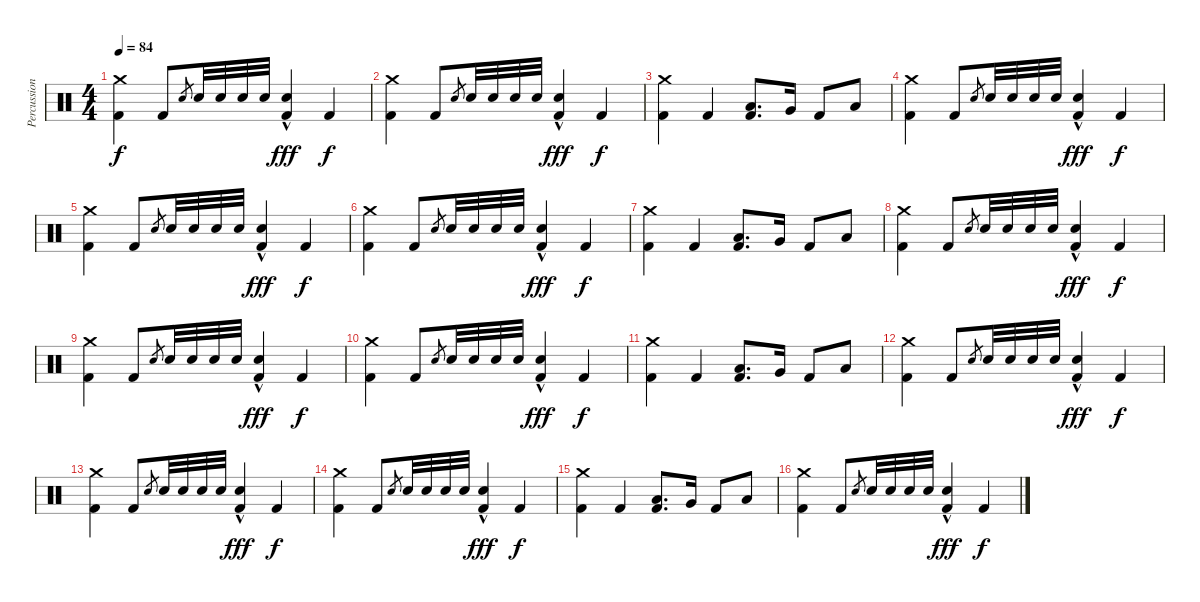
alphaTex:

\track ("Percussion" "Percussion") {instrument percussion}
\staff {score}
\articulation defaults
\ts (4 4)
\tempo 84
\clef neutral
\ks c
("Crash medium (hit)" "Kick (hit) 2").4{dy f} "Kick (hit) 2".8 "Electric Snare (hit)".8{gr} "Electric Snare (hit)".32 "Electric Snare (hit)".32 "Electric Snare (hit)".32 "Electric Snare (hit)".32 ("Electric Snare (hit)"{hac} "Kick (hit) 2").4{dy fff} "Kick (hit) 2".4{dy f} |
("Crash medium (hit)" "Kick (hit) 2").4 "Kick (hit) 2".8 "Electric Snare (hit)".8{gr} "Electric Snare (hit)".32 "Electric Snare (hit)".32 "Electric Snare (hit)".32 "Electric Snare (hit)".32 ("Electric Snare (hit)"{hac} "Kick (hit) 2").4{dy fff} "Kick (hit) 2".4{dy f} |
("Crash medium (hit)" "Kick (hit) 2").4 "Kick (hit) 2".4 ("Low Tom (hit)" "Kick (hit) 2").8{d} "Very Low Tom (hit)".16 "Kick (hit) 2".8 "Low Floor Tom (hit)".8 |
("Crash medium (hit)" "Kick (hit) 2").4 "Kick (hit) 2".8 "Electric Snare (hit)".8{gr} "Electric Snare (hit)".32 "Electric Snare (hit)".32 "Electric Snare (hit)".32 "Electric Snare (hit)".32 ("Electric Snare (hit)"{hac} "Kick (hit) 2").4{dy fff} "Kick (hit) 2".4{dy f} |
("Crash medium (hit)" "Kick (hit) 2").4 "Kick (hit) 2".8 "Electric Snare (hit)".8{gr} "Electric Snare (hit)".32 "Electric Snare (hit)".32 "Electric Snare (hit)".32 "Electric Snare (hit)".32 ("Electric Snare (hit)"{hac} "Kick (hit) 2").4{dy fff} "Kick (hit) 2".4{dy f} |
("Crash medium (hit)" "Kick (hit) 2").4 "Kick (hit) 2".8 "Electric Snare (hit)".8{gr} "Electric Snare (hit)".32 "Electric Snare (hit)".32 "Electric Snare (hit)".32 "Electric Snare (hit)".32 ("Electric Snare (hit)"{hac} "Kick (hit) 2").4{dy fff} "Kick (hit) 2".4{dy f} |
("Crash medium (hit)" "Kick (hit) 2").4 "Kick (hit) 2".4 ("Low Tom (hit)" "Kick (hit) 2").8{d} "Very Low Tom (hit)".16 "Kick (hit) 2".8 "Low Floor Tom (hit)".8 |
("Crash medium (hit)" "Kick (hit) 2").4 "Kick (hit) 2".8 "Electric Snare (hit)".8{gr} "Electric Snare (hit)".32 "Electric Snare (hit)".32 "Electric Snare (hit)".32 "Electric Snare (hit)".32 ("Electric Snare (hit)"{hac} "Kick (hit) 2").4{dy fff} "Kick (hit) 2".4{dy f} |
("Crash medium (hit)" "Kick (hit) 2").4 "Kick (hit) 2".8 "Electric Snare (hit)".8{gr} "Electric Snare (hit)".32 "Electric Snare (hit)".32 "Electric Snare (hit)".32 "Electric Snare (hit)".32 ("Electric Snare (hit)"{hac} "Kick (hit) 2").4{dy fff} "Kick (hit) 2".4{dy f} |
("Crash medium (hit)" "Kick (hit) 2").4 "Kick (hit) 2".8 "Electric Snare (hit)".8{gr} "Electric Snare (hit)".32 "Electric Snare (hit)".32 "Electric Snare (hit)".32 "Electric Snare (hit)".32 ("Electric Snare (hit)"{hac} "Kick (hit) 2").4{dy fff} "Kick (hit) 2".4{dy f} |
("Crash medium (hit)" "Kick (hit) 2").4 "Kick (hit) 2".4 ("Low Tom (hit)" "Kick (hit) 2").8{d} "Very Low Tom (hit)".16 "Kick (hit) 2".8 "Low Floor Tom (hit)".8 |
("Crash medium (hit)" "Kick (hit) 2").4 "Kick (hit) 2".8 "Electric Snare (hit)".8{gr} "Electric Snare (hit)".32 "Electric Snare (hit)".32 "Electric Snare (hit)".32 "Electric Snare (hit)".32 ("Electric Snare (hit)"{hac} "Kick (hit) 2").4{dy fff} "Kick (hit) 2".4{dy f} |
("Crash medium (hit)" "Kick (hit) 2").4 "Kick (hit) 2".8 "Electric Snare (hit)".8{gr} "Electric Snare (hit)".32 "Electric Snare (hit)".32 "Electric Snare (hit)".32 "Electric Snare (hit)".32 ("Electric Snare (hit)"{hac} "Kick (hit) 2").4{dy fff} "Kick (hit) 2".4{dy f} |
("Crash medium (hit)" "Kick (hit) 2").4 "Kick (hit) 2".8 "Electric Snare (hit)".8{gr} "Electric Snare (hit)".32 "Electric Snare (hit)".32 "Electric Snare (hit)".32 "Electric Snare (hit)".32 ("Electric Snare (hit)"{hac} "Kick (hit) 2").4{dy fff} "Kick (hit) 2".4{dy f} |
("Crash medium (hit)" "Kick (hit) 2").4 "Kick (hit) 2".4 ("Low Tom (hit)" "Kick (hit) 2").8{d} "Very Low Tom (hit)".16 "Kick (hit) 2".8 "Low Floor Tom (hit)".8 |
("Crash medium (hit)" "Kick (hit) 2").4 "Kick (hit) 2".8 "Electric Snare (hit)".8{gr} "Electric Snare (hit)".32 "Electric Snare (hit)".32 "Electric Snare (hit)".32 "Electric Snare (hit)".32 ("Electric Snare (hit)"{hac} "Kick (hit) 2").4{dy fff} "Kick (hit) 2".4{dy f}
